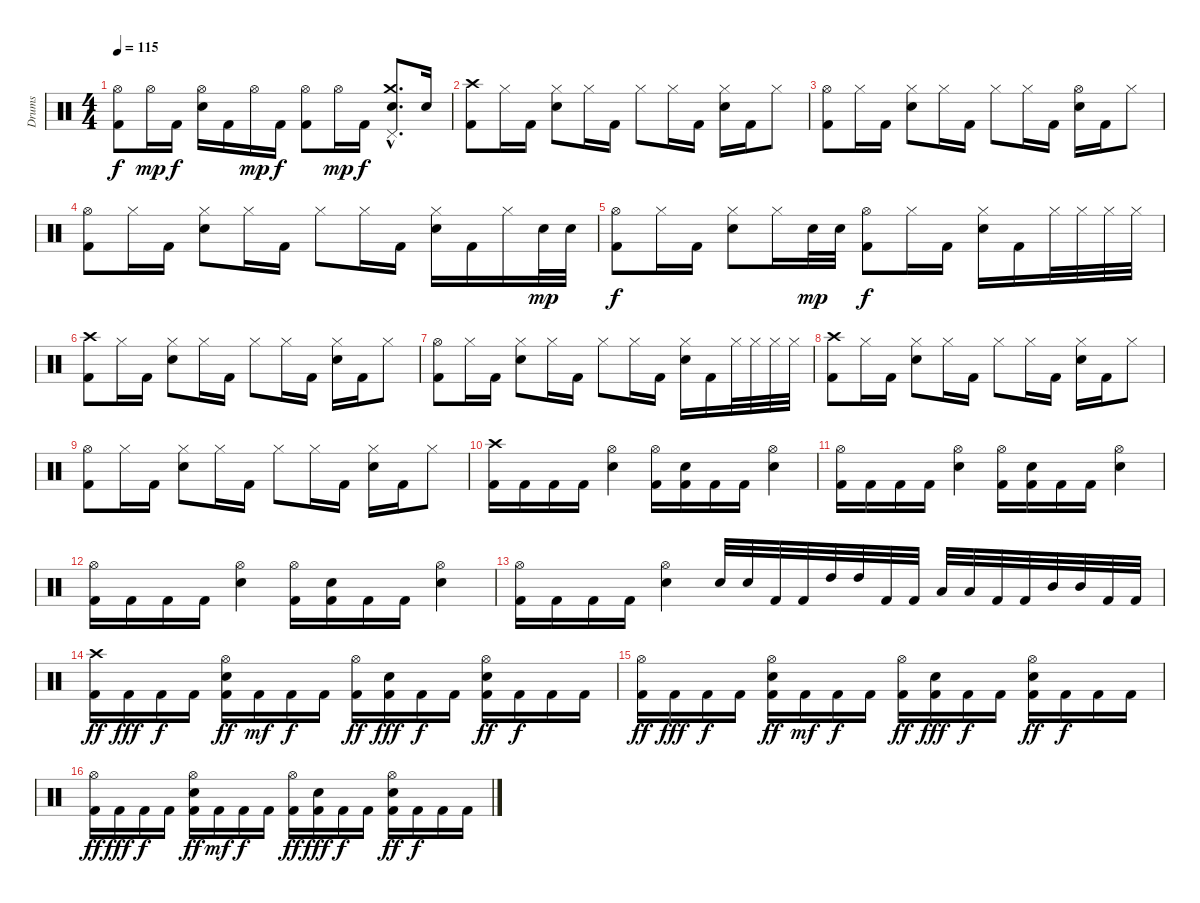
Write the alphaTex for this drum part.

\track ("Drums" "Drums") {instrument percussion}
\staff {score}
\articulation defaults
\ts (4 4)
\tempo 115
\clef neutral
\ks c
("Hi-Hat (open)" "Kick (hit) 2").8{dy f} "Hi-Hat (open)".16{dy mp} "Kick (hit) 2".16{dy f} ("Hi-Hat (open)" "Electric Snare (hit)").16 "Kick (hit) 2".16 "Hi-Hat (open)".16{dy mp} "Kick (hit) 2".16{dy f} ("Hi-Hat (open)" "Kick (hit) 2").8 "Hi-Hat (open)".16{dy mp} "Kick (hit) 2".16{dy f} ("Crash medium (hit)"{hac} "Pedal Hi-Hat (hit)"{hac} "Electric Snare (hit)"{hac}).8{d} "Electric Snare (hit)".16 |
("Crash high (hit)" "Kick (hit) 2").8 "Hi-Hat (closed)".16 "Kick (hit) 2".16 ("Hi-Hat (closed)" "Electric Snare (hit)").8 "Hi-Hat (closed)".16 "Kick (hit) 2".16 "Hi-Hat (closed)".8 "Hi-Hat (closed)".16 "Kick (hit) 2".16 ("Hi-Hat (closed)" "Electric Snare (hit)").16 "Kick (hit) 2".16 "Hi-Hat (closed)".8 |
("Hi-Hat (open)" "Kick (hit) 2").8 "Hi-Hat (closed)".16 "Kick (hit) 2".16 ("Hi-Hat (closed)" "Electric Snare (hit)").8 "Hi-Hat (closed)".16 "Kick (hit) 2".16 "Hi-Hat (closed)".8 "Hi-Hat (closed)".16 "Kick (hit) 2".16 ("Hi-Hat (open)" "Electric Snare (hit)").16 "Kick (hit) 2".16 "Hi-Hat (closed)".8 |
("Hi-Hat (open)" "Kick (hit) 2").8 "Hi-Hat (closed)".16 "Kick (hit) 2".16 ("Hi-Hat (closed)" "Electric Snare (hit)").8 "Hi-Hat (closed)".16 "Kick (hit) 2".16 "Hi-Hat (closed)".8 "Hi-Hat (closed)".16 "Kick (hit) 2".16 ("Hi-Hat (closed)" "Electric Snare (hit)").16 "Kick (hit) 2".16 "Hi-Hat (closed)".16 "Electric Snare (hit)".32{dy mp} "Electric Snare (hit)".32 |
("Hi-Hat (open)" "Kick (hit) 2").8{dy f} "Hi-Hat (closed)".16 "Kick (hit) 2".16 ("Hi-Hat (closed)" "Electric Snare (hit)").8 "Hi-Hat (closed)".16 "Electric Snare (hit)".32{dy mp} "Electric Snare (hit)".32 ("Hi-Hat (open)" "Kick (hit) 2").8{dy f} "Hi-Hat (closed)".16 "Kick (hit) 2".16 ("Hi-Hat (closed)" "Electric Snare (hit)").16 "Kick (hit) 2".16 "Hi-Hat (closed)".32 "Hi-Hat (closed)".32 "Hi-Hat (closed)".32 "Hi-Hat (closed)".32 |
("Crash high (hit)" "Kick (hit) 2").8 "Hi-Hat (closed)".16 "Kick (hit) 2".16 ("Hi-Hat (closed)" "Electric Snare (hit)").8 "Hi-Hat (closed)".16 "Kick (hit) 2".16 "Hi-Hat (closed)".8 "Hi-Hat (closed)".16 "Kick (hit) 2".16 ("Hi-Hat (closed)" "Electric Snare (hit)").16 "Kick (hit) 2".16 "Hi-Hat (closed)".8 |
("Hi-Hat (open)" "Kick (hit) 2").8 "Hi-Hat (closed)".16 "Kick (hit) 2".16 ("Hi-Hat (closed)" "Electric Snare (hit)").8 "Hi-Hat (closed)".16 "Kick (hit) 2".16 "Hi-Hat (closed)".8 "Hi-Hat (closed)".16 "Kick (hit) 2".16 ("Hi-Hat (closed)" "Electric Snare (hit)").16 "Kick (hit) 2".16 "Hi-Hat (closed)".32 "Hi-Hat (closed)".32 "Hi-Hat (closed)".32 "Hi-Hat (closed)".32 |
("Crash high (hit)" "Kick (hit) 2").8 "Hi-Hat (closed)".16 "Kick (hit) 2".16 ("Hi-Hat (closed)" "Electric Snare (hit)").8 "Hi-Hat (closed)".16 "Kick (hit) 2".16 "Hi-Hat (closed)".8 "Hi-Hat (closed)".16 "Kick (hit) 2".16 ("Hi-Hat (closed)" "Electric Snare (hit)").16 "Kick (hit) 2".16 "Hi-Hat (closed)".8 |
("Hi-Hat (open)" "Kick (hit) 2").8 "Hi-Hat (closed)".16 "Kick (hit) 2".16 ("Hi-Hat (closed)" "Electric Snare (hit)").8 "Hi-Hat (closed)".16 "Kick (hit) 2".16 "Hi-Hat (closed)".8 "Hi-Hat (closed)".16 "Kick (hit) 2".16 ("Hi-Hat (closed)" "Electric Snare (hit)").16 "Kick (hit) 2".16 "Hi-Hat (closed)".8 |
("Crash high (hit)" "Kick (hit) 2").16 "Kick (hit) 2".16 "Kick (hit) 2".16 "Kick (hit) 2".16 ("Hi-Hat (open)" "Electric Snare (hit)").4 ("Hi-Hat (open)" "Kick (hit) 2").16 ("Electric Snare (hit)" "Kick (hit) 2").16 "Kick (hit) 2".16 "Kick (hit) 2".16 ("Hi-Hat (open)" "Electric Snare (hit)").4 |
("Hi-Hat (open)" "Kick (hit) 2").16 "Kick (hit) 2".16 "Kick (hit) 2".16 "Kick (hit) 2".16 ("Hi-Hat (open)" "Electric Snare (hit)").4 ("Hi-Hat (open)" "Kick (hit) 2").16 ("Electric Snare (hit)" "Kick (hit) 2").16 "Kick (hit) 2".16 "Kick (hit) 2".16 ("Hi-Hat (open)" "Electric Snare (hit)").4 |
("Hi-Hat (open)" "Kick (hit) 2").16 "Kick (hit) 2".16 "Kick (hit) 2".16 "Kick (hit) 2".16 ("Hi-Hat (open)" "Electric Snare (hit)").4 ("Hi-Hat (open)" "Kick (hit) 2").16 ("Electric Snare (hit)" "Kick (hit) 2").16 "Kick (hit) 2".16 "Kick (hit) 2".16 ("Hi-Hat (open)" "Electric Snare (hit)").4 |
("Hi-Hat (open)" "Kick (hit) 2").16 "Kick (hit) 2".16 "Kick (hit) 2".16 "Kick (hit) 2".16 ("Hi-Hat (open)" "Electric Snare (hit)").4 "Electric Snare (hit)".32 "Electric Snare (hit)".32 "Kick (hit) 2".32 "Kick (hit) 2".32 "High Tom (hit)".32 "High Tom (hit)".32 "Kick (hit) 2".32 "Kick (hit) 2".32 "Low Tom (hit)".32 "Low Tom (hit)".32 "Kick (hit) 2".32 "Kick (hit) 2".32 "Mid Tom (hit)".32 "Mid Tom (hit)".32 "Kick (hit) 2".32 "Kick (hit) 2".32 |
("Crash high (hit)" "Kick (hit) 2").16{dy ff} "Kick (hit) 2".16{dy fff} "Kick (hit) 2".16{dy f} "Kick (hit) 2".16 ("Hi-Hat (open)" "Electric Snare (hit)" "Kick (hit) 2").16{dy ff} "Kick (hit) 2".16{dy mf} "Kick (hit) 2".16{dy f} "Kick (hit) 2".16 ("Hi-Hat (open)" "Kick (hit) 2").16{dy ff} ("Electric Snare (hit)" "Kick (hit) 2").16{dy fff} "Kick (hit) 2".16{dy f} "Kick (hit) 2".16 ("Hi-Hat (open)" "Electric Snare (hit)" "Kick (hit) 2").16{dy ff} "Kick (hit) 2".16{dy f} "Kick (hit) 2".16 "Kick (hit) 2".16 |
("Hi-Hat (open)" "Kick (hit) 2").16{dy ff} "Kick (hit) 2".16{dy fff} "Kick (hit) 2".16{dy f} "Kick (hit) 2".16 ("Hi-Hat (open)" "Electric Snare (hit)" "Kick (hit) 2").16{dy ff} "Kick (hit) 2".16{dy mf} "Kick (hit) 2".16{dy f} "Kick (hit) 2".16 ("Hi-Hat (open)" "Kick (hit) 2").16{dy ff} ("Electric Snare (hit)" "Kick (hit) 2").16{dy fff} "Kick (hit) 2".16{dy f} "Kick (hit) 2".16 ("Hi-Hat (open)" "Electric Snare (hit)" "Kick (hit) 2").16{dy ff} "Kick (hit) 2".16{dy f} "Kick (hit) 2".16 "Kick (hit) 2".16 |
("Hi-Hat (open)" "Kick (hit) 2").16{dy ff} "Kick (hit) 2".16{dy fff} "Kick (hit) 2".16{dy f} "Kick (hit) 2".16 ("Hi-Hat (open)" "Electric Snare (hit)" "Kick (hit) 2").16{dy ff} "Kick (hit) 2".16{dy mf} "Kick (hit) 2".16{dy f} "Kick (hit) 2".16 ("Hi-Hat (open)" "Kick (hit) 2").16{dy ff} ("Electric Snare (hit)" "Kick (hit) 2").16{dy fff} "Kick (hit) 2".16{dy f} "Kick (hit) 2".16 ("Hi-Hat (open)" "Electric Snare (hit)" "Kick (hit) 2").16{dy ff} "Kick (hit) 2".16{dy f} "Kick (hit) 2".16 "Kick (hit) 2".16
